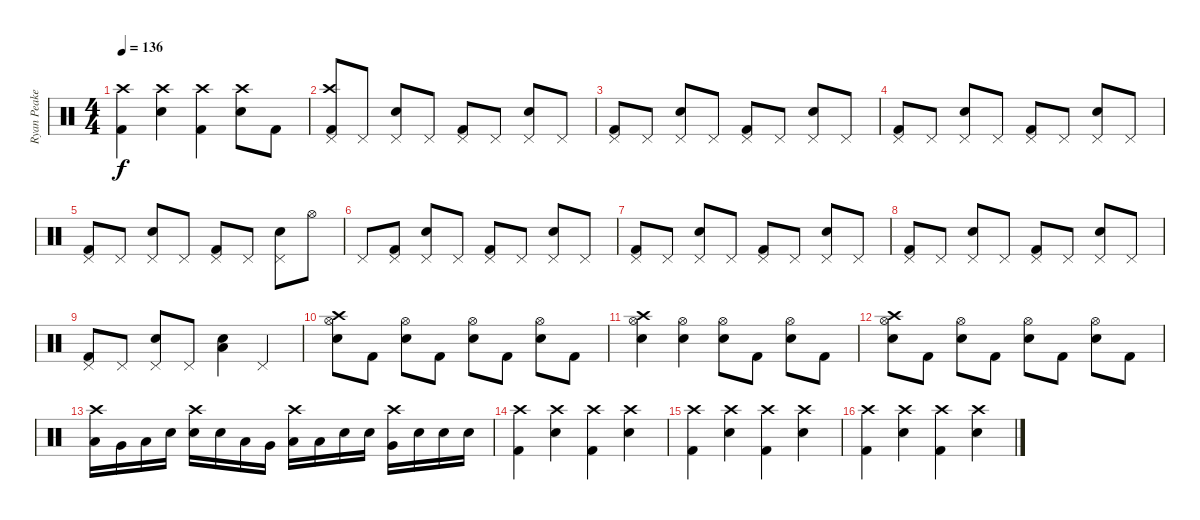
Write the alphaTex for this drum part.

\track ("Ryan Peake" "Ryan Peake") {instrument percussion}
\staff {score}
\articulation defaults
\ts (4 4)
\tempo 136
\clef neutral
\ks c
("Kick (hit) 2" "Crash high (hit)").4{dy f} ("Snare (hit) 2" "Crash high (hit)").4 ("Kick (hit) 2" "Crash high (hit)").4 ("Snare (hit) 2" "Crash high (hit)").8 "Kick (hit) 2".8 |
("Kick (hit) 2" "Pedal Hi-Hat (hit)" "Crash high (hit)").8 "Pedal Hi-Hat (hit)".8 ("Snare (hit) 2" "Pedal Hi-Hat (hit)").8 "Pedal Hi-Hat (hit)".8 ("Kick (hit) 2" "Pedal Hi-Hat (hit)").8 "Pedal Hi-Hat (hit)".8 ("Snare (hit) 2" "Pedal Hi-Hat (hit)").8 "Pedal Hi-Hat (hit)".8 |
("Kick (hit) 2" "Pedal Hi-Hat (hit)").8 "Pedal Hi-Hat (hit)".8 ("Snare (hit) 2" "Pedal Hi-Hat (hit)").8 "Pedal Hi-Hat (hit)".8 ("Kick (hit) 2" "Pedal Hi-Hat (hit)").8 "Pedal Hi-Hat (hit)".8 ("Snare (hit) 2" "Pedal Hi-Hat (hit)").8 "Pedal Hi-Hat (hit)".8 |
("Kick (hit) 2" "Pedal Hi-Hat (hit)").8 "Pedal Hi-Hat (hit)".8 ("Snare (hit) 2" "Pedal Hi-Hat (hit)").8 "Pedal Hi-Hat (hit)".8 ("Kick (hit) 2" "Pedal Hi-Hat (hit)").8 "Pedal Hi-Hat (hit)".8 ("Snare (hit) 2" "Pedal Hi-Hat (hit)").8 "Pedal Hi-Hat (hit)".8 |
("Kick (hit) 2" "Pedal Hi-Hat (hit)").8 "Pedal Hi-Hat (hit)".8 ("Snare (hit) 2" "Pedal Hi-Hat (hit)").8 "Pedal Hi-Hat (hit)".8 ("Kick (hit) 2" "Pedal Hi-Hat (hit)").8 "Pedal Hi-Hat (hit)".8 ("Snare (hit) 2" "Pedal Hi-Hat (hit)").8 "Hi-Hat (open)".8 |
"Pedal Hi-Hat (hit)".8 ("Kick (hit) 2" "Pedal Hi-Hat (hit)").8 ("Snare (hit) 2" "Pedal Hi-Hat (hit)").8 "Pedal Hi-Hat (hit)".8 ("Kick (hit) 2" "Pedal Hi-Hat (hit)").8 "Pedal Hi-Hat (hit)".8 ("Snare (hit) 2" "Pedal Hi-Hat (hit)").8 "Pedal Hi-Hat (hit)".8 |
("Kick (hit) 2" "Pedal Hi-Hat (hit)").8 "Pedal Hi-Hat (hit)".8 ("Snare (hit) 2" "Pedal Hi-Hat (hit)").8 "Pedal Hi-Hat (hit)".8 ("Kick (hit) 2" "Pedal Hi-Hat (hit)").8 "Pedal Hi-Hat (hit)".8 ("Snare (hit) 2" "Pedal Hi-Hat (hit)").8 "Pedal Hi-Hat (hit)".8 |
("Kick (hit) 2" "Pedal Hi-Hat (hit)").8 "Pedal Hi-Hat (hit)".8 ("Snare (hit) 2" "Pedal Hi-Hat (hit)").8 "Pedal Hi-Hat (hit)".8 ("Kick (hit) 2" "Pedal Hi-Hat (hit)").8 "Pedal Hi-Hat (hit)".8 ("Snare (hit) 2" "Pedal Hi-Hat (hit)").8 "Pedal Hi-Hat (hit)".8 |
("Kick (hit) 2" "Pedal Hi-Hat (hit)").8 "Pedal Hi-Hat (hit)".8 ("Snare (hit) 2" "Pedal Hi-Hat (hit)").8 "Pedal Hi-Hat (hit)".8 ("Snare (hit) 2" "Low Tom (hit)").4 "Pedal Hi-Hat (hit)".4 |
("Snare (hit) 2" "Hi-Hat (open)" "Crash high (hit)").8 "Kick (hit) 2".8 ("Snare (hit) 2" "Hi-Hat (open)").8 "Kick (hit) 2".8 ("Snare (hit) 2" "Hi-Hat (open)").8 "Kick (hit) 2".8 ("Snare (hit) 2" "Hi-Hat (open)").8 "Kick (hit) 2".8 |
("Snare (hit) 2" "Hi-Hat (open)" "Crash high (hit)").4 ("Snare (hit) 2" "Hi-Hat (open)").4 ("Snare (hit) 2" "Hi-Hat (open)").8 "Kick (hit) 2".8 ("Snare (hit) 2" "Hi-Hat (open)").8 "Kick (hit) 2".8 |
("Snare (hit) 2" "Hi-Hat (open)" "Crash high (hit)").8 "Kick (hit) 2".8 ("Snare (hit) 2" "Hi-Hat (open)").8 "Kick (hit) 2".8 ("Snare (hit) 2" "Hi-Hat (open)").8 "Kick (hit) 2".8 ("Snare (hit) 2" "Hi-Hat (open)").8 "Kick (hit) 2".8 |
("Low Tom (hit)" "Crash high (hit)").16 "Very Low Tom (hit)".16 "Low Floor Tom (hit)".16 "Snare (hit) 2".16 ("Snare (hit) 2" "Crash high (hit)").16 "Snare (hit) 2".16 "Low Tom (hit)".16 "Very Low Tom (hit)".16 ("Low Floor Tom (hit)" "Crash high (hit)").16 "Low Floor Tom (hit)".16 "Snare (hit) 2".16 "Snare (hit) 2".16 ("Very Low Tom (hit)" "Crash high (hit)").16 "Snare (hit) 2".16 "Snare (hit) 2".16 "Snare (hit) 2".16 |
("Kick (hit) 2" "Crash high (hit)").4 ("Snare (hit) 2" "Crash high (hit)").4 ("Kick (hit) 2" "Crash high (hit)").4 ("Snare (hit) 2" "Crash high (hit)").4 |
("Kick (hit) 2" "Crash high (hit)").4 ("Snare (hit) 2" "Crash high (hit)").4 ("Kick (hit) 2" "Crash high (hit)").4 ("Snare (hit) 2" "Crash high (hit)").4 |
("Kick (hit) 2" "Crash high (hit)").4 ("Snare (hit) 2" "Crash high (hit)").4 ("Kick (hit) 2" "Crash high (hit)").4 ("Snare (hit) 2" "Crash high (hit)").4
